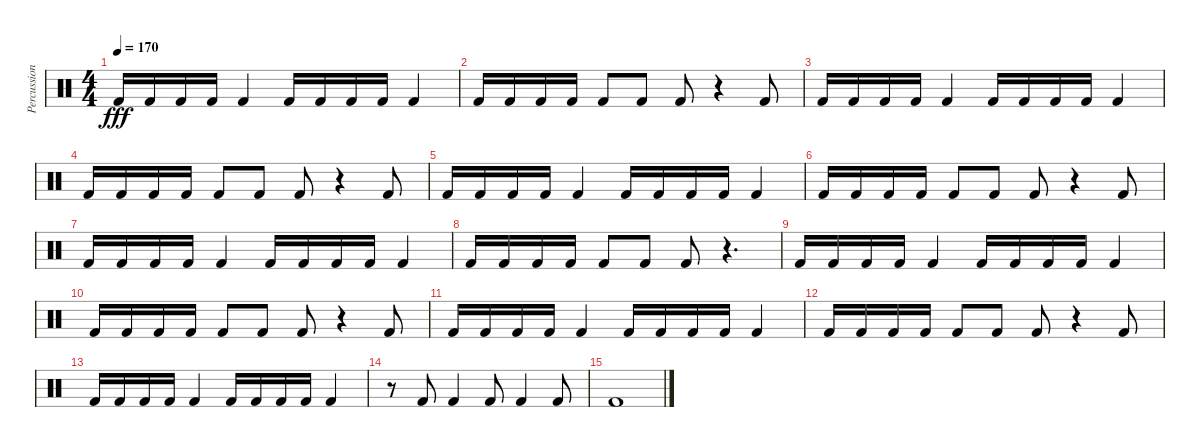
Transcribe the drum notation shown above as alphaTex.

\track ("Percussioni" "Percussion") {instrument percussion}
\staff
\articulation defaults
\ts (4 4)
\tempo 170
\clef neutral
\ks c "Kick (hit) 2".16{dy fff} "Kick (hit) 2".16 "Kick (hit) 2".16 "Kick (hit) 2".16 "Kick (hit) 2".4 "Kick (hit) 2".16 "Kick (hit) 2".16 "Kick (hit) 2".16 "Kick (hit) 2".16 "Kick (hit) 2".4
|
"Kick (hit) 2".16 "Kick (hit) 2".16 "Kick (hit) 2".16 "Kick (hit) 2".16 "Kick (hit) 2".8 "Kick (hit) 2".8 "Kick (hit) 2".8 r.4 "Kick (hit) 2".8 |
"Kick (hit) 2".16 "Kick (hit) 2".16 "Kick (hit) 2".16 "Kick (hit) 2".16 "Kick (hit) 2".4 "Kick (hit) 2".16 "Kick (hit) 2".16 "Kick (hit) 2".16 "Kick (hit) 2".16 "Kick (hit) 2".4 |
"Kick (hit) 2".16 "Kick (hit) 2".16 "Kick (hit) 2".16 "Kick (hit) 2".16 "Kick (hit) 2".8 "Kick (hit) 2".8 "Kick (hit) 2".8 r.4 "Kick (hit) 2".8 |
"Kick (hit) 2".16 "Kick (hit) 2".16 "Kick (hit) 2".16 "Kick (hit) 2".16 "Kick (hit) 2".4 "Kick (hit) 2".16 "Kick (hit) 2".16 "Kick (hit) 2".16 "Kick (hit) 2".16 "Kick (hit) 2".4 |
"Kick (hit) 2".16 "Kick (hit) 2".16 "Kick (hit) 2".16 "Kick (hit) 2".16 "Kick (hit) 2".8 "Kick (hit) 2".8 "Kick (hit) 2".8 r.4 "Kick (hit) 2".8 |
"Kick (hit) 2".16 "Kick (hit) 2".16 "Kick (hit) 2".16 "Kick (hit) 2".16 "Kick (hit) 2".4 "Kick (hit) 2".16 "Kick (hit) 2".16 "Kick (hit) 2".16 "Kick (hit) 2".16 "Kick (hit) 2".4 |
"Kick (hit) 2".16 "Kick (hit) 2".16 "Kick (hit) 2".16 "Kick (hit) 2".16 "Kick (hit) 2".8 "Kick (hit) 2".8 "Kick (hit) 2".8 r.4{d} |
"Kick (hit) 2".16 "Kick (hit) 2".16 "Kick (hit) 2".16 "Kick (hit) 2".16 "Kick (hit) 2".4 "Kick (hit) 2".16 "Kick (hit) 2".16 "Kick (hit) 2".16 "Kick (hit) 2".16 "Kick (hit) 2".4 |
"Kick (hit) 2".16 "Kick (hit) 2".16 "Kick (hit) 2".16 "Kick (hit) 2".16 "Kick (hit) 2".8 "Kick (hit) 2".8 "Kick (hit) 2".8 r.4 "Kick (hit) 2".8 |
"Kick (hit) 2".16 "Kick (hit) 2".16 "Kick (hit) 2".16 "Kick (hit) 2".16 "Kick (hit) 2".4 "Kick (hit) 2".16 "Kick (hit) 2".16 "Kick (hit) 2".16 "Kick (hit) 2".16 "Kick (hit) 2".4 |
"Kick (hit) 2".16 "Kick (hit) 2".16 "Kick (hit) 2".16 "Kick (hit) 2".16 "Kick (hit) 2".8 "Kick (hit) 2".8 "Kick (hit) 2".8 r.4 "Kick (hit) 2".8 |
"Kick (hit) 2".16 "Kick (hit) 2".16 "Kick (hit) 2".16 "Kick (hit) 2".16 "Kick (hit) 2".4 "Kick (hit) 2".16 "Kick (hit) 2".16 "Kick (hit) 2".16 "Kick (hit) 2".16 "Kick (hit) 2".4 |
r.8 "Kick (hit) 2".8 "Kick (hit) 2".4 "Kick (hit) 2".8 "Kick (hit) 2".4 "Kick (hit) 2".8 |
"Kick (hit) 2".1
